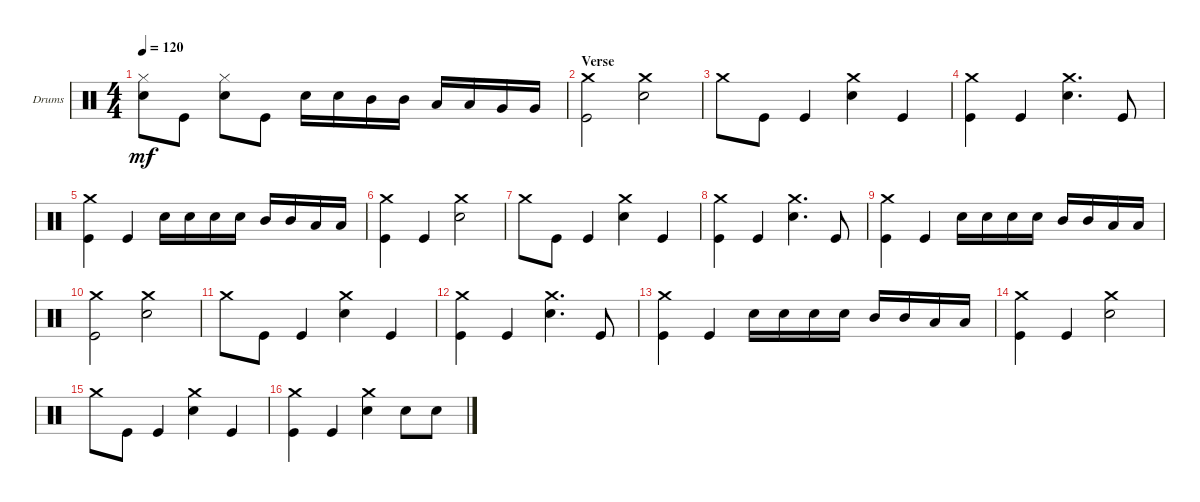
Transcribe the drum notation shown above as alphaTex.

\defaultSystemsLayout 4
\bracketExtendMode groupsimilarinstruments
\firstSystemTrackNameOrientation horizontal
\otherSystemsTrackNameOrientation horizontal
\track ("Drumkit" "Drums") {instrument percussion}
\staff {score}
\articulation defaults
\ts (4 4)
\tempo 120
\clef neutral
\ks c
("Snare (hit) 2" "Hi-Hat (closed)").8{dy mf} "Kick (hit)".8 ("Snare (hit) 2" "Hi-Hat (closed)").8 "Kick (hit)".8 "Snare (hit) 2".16 "Snare (hit) 2".16 "Mid Tom (hit)".16 "Mid Tom (hit)".16 "Low Tom (hit)".16 "Low Tom (hit)".16 "Very Low Tom (hit)".16 "Very Low Tom (hit)".16 |
\section ("" "Verse")
("Crash medium (hit)" "Kick (hit)").2 ("Snare (hit) 2" "Crash medium (hit)").2 |
"Crash medium (hit)".8 "Kick (hit)".8 "Kick (hit)".4 ("Snare (hit) 2" "Crash medium (hit)").4 "Kick (hit)".4 |
("Crash medium (hit)" "Kick (hit)").4 "Kick (hit)".4 ("Snare (hit) 2" "Crash medium (hit)").4{d} "Kick (hit)".8 |
("Kick (hit)" "Crash medium (hit)").4 "Kick (hit)".4 "Snare (hit) 2".16 "Snare (hit) 2".16 "Snare (hit) 2".16 "Snare (hit) 2".16 "Mid Tom (hit)".16 "Mid Tom (hit)".16 "Low Tom (hit)".16 "Low Tom (hit)".16 |
("Crash medium (hit)" "Kick (hit)").4 "Kick (hit)".4 ("Snare (hit) 2" "Crash medium (hit)").2 |
"Crash medium (hit)".8 "Kick (hit)".8 "Kick (hit)".4 ("Snare (hit) 2" "Crash medium (hit)").4 "Kick (hit)".4 |
("Crash medium (hit)" "Kick (hit)").4 "Kick (hit)".4 ("Snare (hit) 2" "Crash medium (hit)").4{d} "Kick (hit)".8 |
("Kick (hit)" "Crash medium (hit)").4 "Kick (hit)".4 "Snare (hit) 2".16 "Snare (hit) 2".16 "Snare (hit) 2".16 "Snare (hit) 2".16 "Mid Tom (hit)".16 "Mid Tom (hit)".16 "Low Tom (hit)".16 "Low Tom (hit)".16 |
("Crash medium (hit)" "Kick (hit)").2 ("Snare (hit) 2" "Crash medium (hit)").2 |
"Crash medium (hit)".8 "Kick (hit)".8 "Kick (hit)".4 ("Snare (hit) 2" "Crash medium (hit)").4 "Kick (hit)".4 |
("Crash medium (hit)" "Kick (hit)").4 "Kick (hit)".4 ("Snare (hit) 2" "Crash medium (hit)").4{d} "Kick (hit)".8 |
("Kick (hit)" "Crash medium (hit)").4 "Kick (hit)".4 "Snare (hit) 2".16 "Snare (hit) 2".16 "Snare (hit) 2".16 "Snare (hit) 2".16 "Mid Tom (hit)".16 "Mid Tom (hit)".16 "Low Tom (hit)".16 "Low Tom (hit)".16 |
("Crash medium (hit)" "Kick (hit)").4 "Kick (hit)".4 ("Snare (hit) 2" "Crash medium (hit)").2 |
"Crash medium (hit)".8 "Kick (hit)".8 "Kick (hit)".4 ("Snare (hit) 2" "Crash medium (hit)").4 "Kick (hit)".4 |
("Crash medium (hit)" "Kick (hit)").4 "Kick (hit)".4 ("Snare (hit) 2" "Crash medium (hit)").4 "Snare (hit) 2".8 "Snare (hit) 2".8
